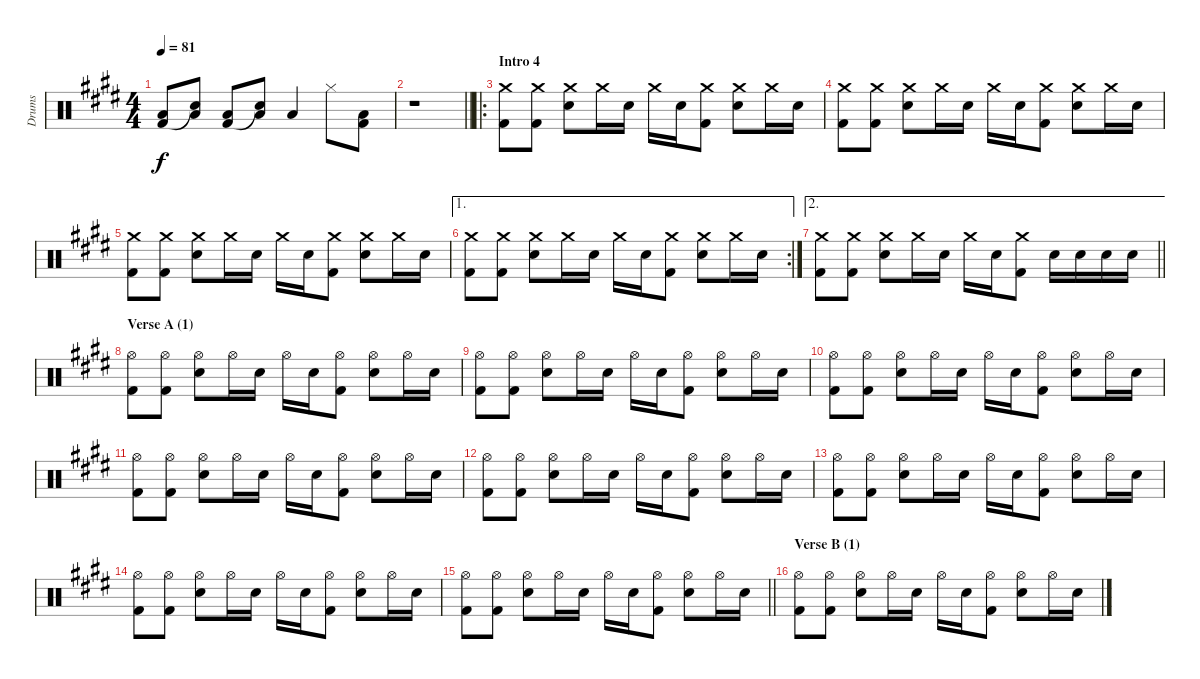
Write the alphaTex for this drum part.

\track ("Drums" "Drums") {instrument percussion}
\staff {score}
\articulation defaults
\ts (4 4)
\tempo 81
\clef neutral
\ks c#minor
("Low Floor Tom (hit)" "Kick (hit) 2").8{dy f} ("Low Floor Tom (hit)" "Snare (hit)"{t}).8 ("Low Floor Tom (hit)" "Kick (hit) 2").8 ("Low Floor Tom (hit)" "Snare (hit)"{t}).8 "Low Tom (hit)".4 "Hi-Hat (closed)".8 ("Low Floor Tom (hit)" "Kick (hit) 2").8 |
\barLineRight lightlight
r.1 |
\ro
\section ("" "Intro 4")
("Crash medium (hit)" "Kick (hit) 2").8 ("Crash medium (hit)" "Kick (hit) 2").8 ("Crash medium (hit)" "Electric Snare (hit)").8 "Crash medium (hit)".16 "Electric Snare (hit)".16 "Crash medium (hit)".16 "Electric Snare (hit)".16 ("Crash medium (hit)" "Kick (hit) 2").8 ("Crash medium (hit)" "Electric Snare (hit)").8 "Crash medium (hit)".16 "Electric Snare (hit)".16 |
("Crash medium (hit)" "Kick (hit) 2").8 ("Crash medium (hit)" "Kick (hit) 2").8 ("Crash medium (hit)" "Electric Snare (hit)").8 "Crash medium (hit)".16 "Electric Snare (hit)".16 "Crash medium (hit)".16 "Electric Snare (hit)".16 ("Crash medium (hit)" "Kick (hit) 2").8 ("Crash medium (hit)" "Electric Snare (hit)").8 "Crash medium (hit)".16 "Electric Snare (hit)".16 |
("Crash medium (hit)" "Kick (hit) 2").8 ("Crash medium (hit)" "Kick (hit) 2").8 ("Crash medium (hit)" "Electric Snare (hit)").8 "Crash medium (hit)".16 "Electric Snare (hit)".16 "Crash medium (hit)".16 "Electric Snare (hit)".16 ("Crash medium (hit)" "Kick (hit) 2").8 ("Crash medium (hit)" "Electric Snare (hit)").8 "Crash medium (hit)".16 "Electric Snare (hit)".16 |
\ae 1
\rc 2
("Crash medium (hit)" "Kick (hit) 2").8 ("Crash medium (hit)" "Kick (hit) 2").8 ("Crash medium (hit)" "Electric Snare (hit)").8 "Crash medium (hit)".16 "Electric Snare (hit)".16 "Crash medium (hit)".16 "Electric Snare (hit)".16 ("Crash medium (hit)" "Kick (hit) 2").8 ("Crash medium (hit)" "Electric Snare (hit)").8 "Crash medium (hit)".16 "Electric Snare (hit)".16 |
\ae 2
\barLineRight lightlight
("Crash medium (hit)" "Kick (hit) 2").8 ("Crash medium (hit)" "Kick (hit) 2").8 ("Crash medium (hit)" "Electric Snare (hit)").8 "Crash medium (hit)".16 "Electric Snare (hit)".16 "Crash medium (hit)".16 "Electric Snare (hit)".16 ("Crash medium (hit)" "Kick (hit) 2").8 "Electric Snare (hit)".16 "Electric Snare (hit)".16 "Electric Snare (hit)".16 "Electric Snare (hit)".16 |
\section ("" "Verse A (1)")
("Hi-Hat (open)" "Kick (hit) 2").8 ("Hi-Hat (open)" "Kick (hit) 2").8 ("Hi-Hat (open)" "Electric Snare (hit)").8 "Hi-Hat (open)".16 "Electric Snare (hit)".16 "Hi-Hat (open)".16 "Electric Snare (hit)".16 ("Hi-Hat (open)" "Kick (hit) 2").8 ("Hi-Hat (open)" "Electric Snare (hit)").8 "Hi-Hat (open)".16 "Electric Snare (hit)".16 |
("Hi-Hat (open)" "Kick (hit) 2").8 ("Hi-Hat (open)" "Kick (hit) 2").8 ("Hi-Hat (open)" "Electric Snare (hit)").8 "Hi-Hat (open)".16 "Electric Snare (hit)".16 "Hi-Hat (open)".16 "Electric Snare (hit)".16 ("Hi-Hat (open)" "Kick (hit) 2").8 ("Hi-Hat (open)" "Electric Snare (hit)").8 "Hi-Hat (open)".16 "Electric Snare (hit)".16 |
("Hi-Hat (open)" "Kick (hit) 2").8 ("Hi-Hat (open)" "Kick (hit) 2").8 ("Hi-Hat (open)" "Electric Snare (hit)").8 "Hi-Hat (open)".16 "Electric Snare (hit)".16 "Hi-Hat (open)".16 "Electric Snare (hit)".16 ("Hi-Hat (open)" "Kick (hit) 2").8 ("Hi-Hat (open)" "Electric Snare (hit)").8 "Hi-Hat (open)".16 "Electric Snare (hit)".16 |
("Hi-Hat (open)" "Kick (hit) 2").8 ("Hi-Hat (open)" "Kick (hit) 2").8 ("Hi-Hat (open)" "Electric Snare (hit)").8 "Hi-Hat (open)".16 "Electric Snare (hit)".16 "Hi-Hat (open)".16 "Electric Snare (hit)".16 ("Hi-Hat (open)" "Kick (hit) 2").8 ("Hi-Hat (open)" "Electric Snare (hit)").8 "Hi-Hat (open)".16 "Electric Snare (hit)".16 |
("Hi-Hat (open)" "Kick (hit) 2").8 ("Hi-Hat (open)" "Kick (hit) 2").8 ("Hi-Hat (open)" "Electric Snare (hit)").8 "Hi-Hat (open)".16 "Electric Snare (hit)".16 "Hi-Hat (open)".16 "Electric Snare (hit)".16 ("Hi-Hat (open)" "Kick (hit) 2").8 ("Hi-Hat (open)" "Electric Snare (hit)").8 "Hi-Hat (open)".16 "Electric Snare (hit)".16 |
("Hi-Hat (open)" "Kick (hit) 2").8 ("Hi-Hat (open)" "Kick (hit) 2").8 ("Hi-Hat (open)" "Electric Snare (hit)").8 "Hi-Hat (open)".16 "Electric Snare (hit)".16 "Hi-Hat (open)".16 "Electric Snare (hit)".16 ("Hi-Hat (open)" "Kick (hit) 2").8 ("Hi-Hat (open)" "Electric Snare (hit)").8 "Hi-Hat (open)".16 "Electric Snare (hit)".16 |
("Hi-Hat (open)" "Kick (hit) 2").8 ("Hi-Hat (open)" "Kick (hit) 2").8 ("Hi-Hat (open)" "Electric Snare (hit)").8 "Hi-Hat (open)".16 "Electric Snare (hit)".16 "Hi-Hat (open)".16 "Electric Snare (hit)".16 ("Hi-Hat (open)" "Kick (hit) 2").8 ("Hi-Hat (open)" "Electric Snare (hit)").8 "Hi-Hat (open)".16 "Electric Snare (hit)".16 |
\barLineRight lightlight
("Hi-Hat (open)" "Kick (hit) 2").8 ("Hi-Hat (open)" "Kick (hit) 2").8 ("Hi-Hat (open)" "Electric Snare (hit)").8 "Hi-Hat (open)".16 "Electric Snare (hit)".16 "Hi-Hat (open)".16 "Electric Snare (hit)".16 ("Hi-Hat (open)" "Kick (hit) 2").8 ("Hi-Hat (open)" "Electric Snare (hit)").8 "Hi-Hat (open)".16 "Electric Snare (hit)".16 |
\section ("" "Verse B (1)")
("Hi-Hat (open)" "Kick (hit) 2").8 ("Hi-Hat (open)" "Kick (hit) 2").8 ("Hi-Hat (open)" "Electric Snare (hit)").8 "Hi-Hat (open)".16 "Electric Snare (hit)".16 "Hi-Hat (open)".16 "Electric Snare (hit)".16 ("Hi-Hat (open)" "Kick (hit) 2").8 ("Hi-Hat (open)" "Electric Snare (hit)").8 "Hi-Hat (open)".16 "Electric Snare (hit)".16
